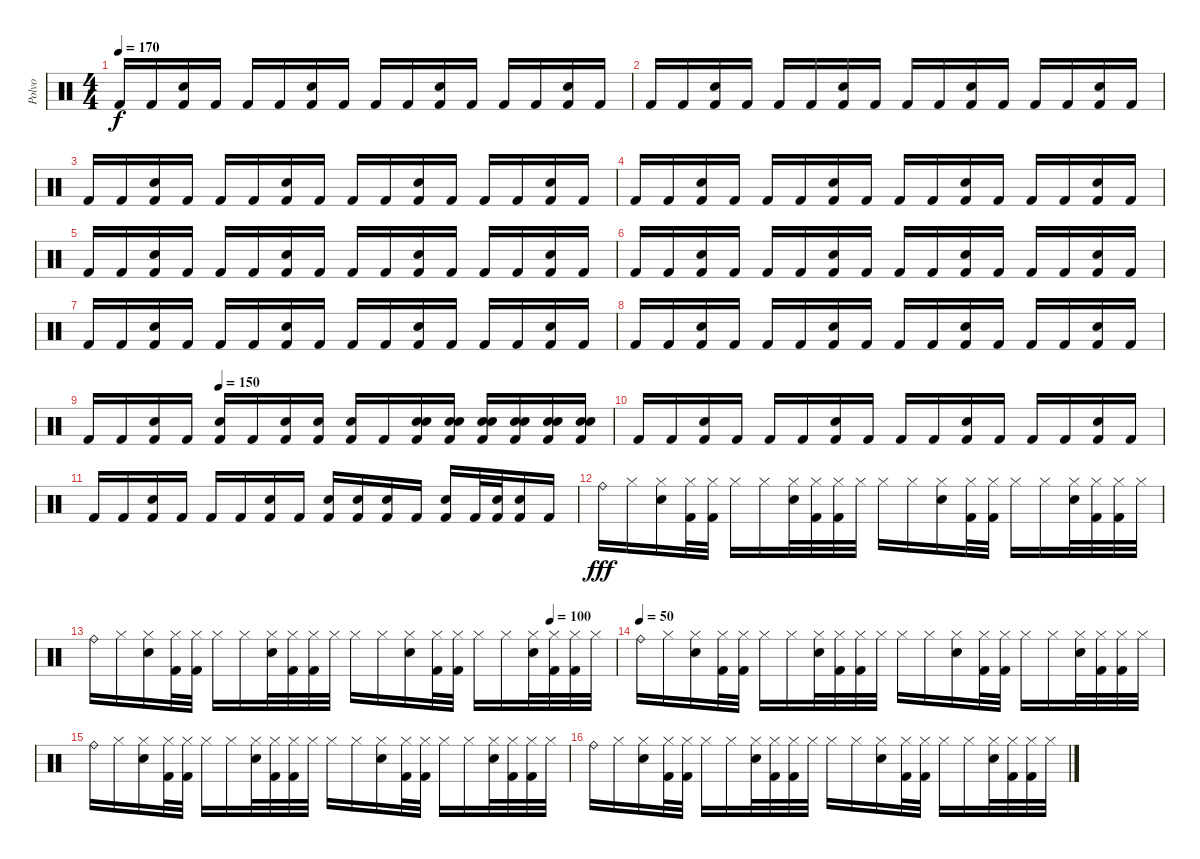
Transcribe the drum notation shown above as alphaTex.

\track ("Polvo" "Polvo") {instrument percussion}
\staff {score}
\articulation defaults
\ts (4 4)
\tempo 170
\clef neutral
\ks c "Kick (hit) 2".16{dy f} "Kick (hit) 2".16
("Electric Snare (hit)" "Kick (hit) 2").16 "Kick (hit) 2".16 "Kick (hit) 2".16 "Kick (hit) 2".16 ("Electric Snare (hit)" "Kick (hit) 2").16 "Kick (hit) 2".16 "Kick (hit) 2".16 "Kick (hit) 2".16 ("Electric Snare (hit)" "Kick (hit) 2").16 "Kick (hit) 2".16 "Kick (hit) 2".16 "Kick (hit) 2".16 ("Electric Snare (hit)" "Kick (hit) 2").16 "Kick (hit) 2".16 |
"Kick (hit) 2".16 "Kick (hit) 2".16 ("Electric Snare (hit)" "Kick (hit) 2").16 "Kick (hit) 2".16 "Kick (hit) 2".16 "Kick (hit) 2".16 ("Electric Snare (hit)" "Kick (hit) 2").16 "Kick (hit) 2".16 "Kick (hit) 2".16 "Kick (hit) 2".16 ("Electric Snare (hit)" "Kick (hit) 2").16 "Kick (hit) 2".16 "Kick (hit) 2".16 "Kick (hit) 2".16 ("Electric Snare (hit)" "Kick (hit) 2").16 "Kick (hit) 2".16 |
"Kick (hit) 2".16 "Kick (hit) 2".16 ("Electric Snare (hit)" "Kick (hit) 2").16 "Kick (hit) 2".16 "Kick (hit) 2".16 "Kick (hit) 2".16 ("Electric Snare (hit)" "Kick (hit) 2").16 "Kick (hit) 2".16 "Kick (hit) 2".16 "Kick (hit) 2".16 ("Electric Snare (hit)" "Kick (hit) 2").16 "Kick (hit) 2".16 "Kick (hit) 2".16 "Kick (hit) 2".16 ("Electric Snare (hit)" "Kick (hit) 2").16 "Kick (hit) 2".16 |
"Kick (hit) 2".16 "Kick (hit) 2".16 ("Electric Snare (hit)" "Kick (hit) 2").16 "Kick (hit) 2".16 "Kick (hit) 2".16 "Kick (hit) 2".16 ("Electric Snare (hit)" "Kick (hit) 2").16 "Kick (hit) 2".16 "Kick (hit) 2".16 "Kick (hit) 2".16 ("Electric Snare (hit)" "Kick (hit) 2").16 "Kick (hit) 2".16 "Kick (hit) 2".16 "Kick (hit) 2".16 ("Electric Snare (hit)" "Kick (hit) 2").16 "Kick (hit) 2".16 |
"Kick (hit) 2".16 "Kick (hit) 2".16 ("Electric Snare (hit)" "Kick (hit) 2").16 "Kick (hit) 2".16 "Kick (hit) 2".16 "Kick (hit) 2".16 ("Electric Snare (hit)" "Kick (hit) 2").16 "Kick (hit) 2".16 "Kick (hit) 2".16 "Kick (hit) 2".16 ("Electric Snare (hit)" "Kick (hit) 2").16 "Kick (hit) 2".16 "Kick (hit) 2".16 "Kick (hit) 2".16 ("Electric Snare (hit)" "Kick (hit) 2").16 "Kick (hit) 2".16 |
"Kick (hit) 2".16 "Kick (hit) 2".16 ("Electric Snare (hit)" "Kick (hit) 2").16 "Kick (hit) 2".16 "Kick (hit) 2".16 "Kick (hit) 2".16 ("Electric Snare (hit)" "Kick (hit) 2").16 "Kick (hit) 2".16 "Kick (hit) 2".16 "Kick (hit) 2".16 ("Electric Snare (hit)" "Kick (hit) 2").16 "Kick (hit) 2".16 "Kick (hit) 2".16 "Kick (hit) 2".16 ("Electric Snare (hit)" "Kick (hit) 2").16 "Kick (hit) 2".16 |
"Kick (hit) 2".16 "Kick (hit) 2".16 ("Electric Snare (hit)" "Kick (hit) 2").16 "Kick (hit) 2".16 "Kick (hit) 2".16 "Kick (hit) 2".16 ("Electric Snare (hit)" "Kick (hit) 2").16 "Kick (hit) 2".16 "Kick (hit) 2".16 "Kick (hit) 2".16 ("Electric Snare (hit)" "Kick (hit) 2").16 "Kick (hit) 2".16 "Kick (hit) 2".16 "Kick (hit) 2".16 ("Electric Snare (hit)" "Kick (hit) 2").16 "Kick (hit) 2".16 |
"Kick (hit) 2".16 "Kick (hit) 2".16 ("Electric Snare (hit)" "Kick (hit) 2").16 "Kick (hit) 2".16 "Kick (hit) 2".16 "Kick (hit) 2".16 ("Electric Snare (hit)" "Kick (hit) 2").16 "Kick (hit) 2".16 "Kick (hit) 2".16 "Kick (hit) 2".16 ("Electric Snare (hit)" "Kick (hit) 2").16 "Kick (hit) 2".16 "Kick (hit) 2".16 "Kick (hit) 2".16 ("Electric Snare (hit)" "Kick (hit) 2").16 "Kick (hit) 2".16 |
\tempo (100 0.25)
\tempo (150 0.25)
"Kick (hit) 2".16 "Kick (hit) 2".16 ("Electric Snare (hit)" "Kick (hit) 2").16 "Kick (hit) 2".16 ("Electric Snare (hit)" "Kick (hit) 2").16 "Kick (hit) 2".16 ("Electric Snare (hit)" "Kick (hit) 2").16 ("Electric Snare (hit)" "Kick (hit) 2").16 ("Electric Snare (hit)" "Kick (hit) 2").16 "Kick (hit) 2".16 ("Snare (hit) 2" "Electric Snare (hit)" "Kick (hit) 2").16 ("Snare (hit) 2" "Electric Snare (hit)" "Kick (hit) 2").16 ("Snare (hit) 2" "Electric Snare (hit)" "Kick (hit) 2").16 ("Snare (hit) 2" "Electric Snare (hit)" "Kick (hit) 2").16 ("Snare (hit) 2" "Electric Snare (hit)" "Kick (hit) 2").16 ("Snare (hit) 2" "Electric Snare (hit)" "Kick (hit) 2").16 |
"Kick (hit) 2".16 "Kick (hit) 2".16 ("Electric Snare (hit)" "Kick (hit) 2").16 "Kick (hit) 2".16 "Kick (hit) 2".16 "Kick (hit) 2".16 ("Electric Snare (hit)" "Kick (hit) 2").16 "Kick (hit) 2".16 "Kick (hit) 2".16 "Kick (hit) 2".16 ("Electric Snare (hit)" "Kick (hit) 2").16 "Kick (hit) 2".16 "Kick (hit) 2".16 "Kick (hit) 2".16 ("Electric Snare (hit)" "Kick (hit) 2").16 "Kick (hit) 2".16 |
"Kick (hit) 2".16 "Kick (hit) 2".16 ("Electric Snare (hit)" "Kick (hit) 2").16 "Kick (hit) 2".16 "Kick (hit) 2".16 "Kick (hit) 2".16 ("Electric Snare (hit)" "Kick (hit) 2").16 "Kick (hit) 2".16 ("Electric Snare (hit)" "Kick (hit) 2").16 ("Electric Snare (hit)" "Kick (hit) 2").16 ("Electric Snare (hit)" "Kick (hit) 2").16 "Kick (hit) 2".16 ("Electric Snare (hit)" "Kick (hit) 2").16 "Kick (hit) 2".32 ("Electric Snare (hit)" "Kick (hit) 2").32 ("Electric Snare (hit)" "Kick (hit) 2").16 "Kick (hit) 2".16 |
"Ride (bell)".16{dy fff} "Hi-Hat (closed)".16 ("Electric Snare (hit)" "Hi-Hat (closed)").16 ("Hi-Hat (closed)" "Kick (hit) 2").32 ("Hi-Hat (closed)" "Kick (hit) 2").32 "Hi-Hat (closed)".16 "Hi-Hat (closed)".16 ("Electric Snare (hit)" "Hi-Hat (closed)").32 ("Hi-Hat (closed)" "Kick (hit) 2").32 ("Hi-Hat (closed)" "Kick (hit) 2").32 "Hi-Hat (closed)".32 "Hi-Hat (closed)".16 "Hi-Hat (closed)".16 ("Electric Snare (hit)" "Hi-Hat (closed)").16 ("Hi-Hat (closed)" "Kick (hit) 2").32 ("Hi-Hat (closed)" "Kick (hit) 2").32 "Hi-Hat (closed)".16 "Hi-Hat (closed)".16 ("Electric Snare (hit)" "Hi-Hat (closed)").32 ("Hi-Hat (closed)" "Kick (hit) 2").32 ("Hi-Hat (closed)" "Kick (hit) 2").32 "Hi-Hat (closed)".32 |
\tempo (100 0.875)
"Ride (bell)".16 "Hi-Hat (closed)".16 ("Electric Snare (hit)" "Hi-Hat (closed)").16 ("Hi-Hat (closed)" "Kick (hit) 2").32 ("Hi-Hat (closed)" "Kick (hit) 2").32 "Hi-Hat (closed)".16 "Hi-Hat (closed)".16 ("Electric Snare (hit)" "Hi-Hat (closed)").32 ("Hi-Hat (closed)" "Kick (hit) 2").32 ("Hi-Hat (closed)" "Kick (hit) 2").32 "Hi-Hat (closed)".32 "Hi-Hat (closed)".16 "Hi-Hat (closed)".16 ("Electric Snare (hit)" "Hi-Hat (closed)").16 ("Hi-Hat (closed)" "Kick (hit) 2").32 ("Hi-Hat (closed)" "Kick (hit) 2").32 "Hi-Hat (closed)".16 "Hi-Hat (closed)".16 ("Electric Snare (hit)" "Hi-Hat (closed)").32 ("Hi-Hat (closed)" "Kick (hit) 2").32 ("Hi-Hat (closed)" "Kick (hit) 2").32 "Hi-Hat (closed)".32 |
\tempo (50)
"Ride (bell)".16 "Hi-Hat (closed)".16 ("Electric Snare (hit)" "Hi-Hat (closed)").16 ("Hi-Hat (closed)" "Kick (hit) 2").32 ("Hi-Hat (closed)" "Kick (hit) 2").32 "Hi-Hat (closed)".16 "Hi-Hat (closed)".16 ("Electric Snare (hit)" "Hi-Hat (closed)").32 ("Hi-Hat (closed)" "Kick (hit) 2").32 ("Hi-Hat (closed)" "Kick (hit) 2").32 "Hi-Hat (closed)".32 "Hi-Hat (closed)".16 "Hi-Hat (closed)".16 ("Electric Snare (hit)" "Hi-Hat (closed)").16 ("Hi-Hat (closed)" "Kick (hit) 2").32 ("Hi-Hat (closed)" "Kick (hit) 2").32 "Hi-Hat (closed)".16 "Hi-Hat (closed)".16 ("Electric Snare (hit)" "Hi-Hat (closed)").32 ("Hi-Hat (closed)" "Kick (hit) 2").32 ("Hi-Hat (closed)" "Kick (hit) 2").32 "Hi-Hat (closed)".32 |
"Ride (bell)".16 "Hi-Hat (closed)".16 ("Electric Snare (hit)" "Hi-Hat (closed)").16 ("Hi-Hat (closed)" "Kick (hit) 2").32 ("Hi-Hat (closed)" "Kick (hit) 2").32 "Hi-Hat (closed)".16 "Hi-Hat (closed)".16 ("Electric Snare (hit)" "Hi-Hat (closed)").32 ("Hi-Hat (closed)" "Kick (hit) 2").32 ("Hi-Hat (closed)" "Kick (hit) 2").32 "Hi-Hat (closed)".32 "Hi-Hat (closed)".16 "Hi-Hat (closed)".16 ("Electric Snare (hit)" "Hi-Hat (closed)").16 ("Hi-Hat (closed)" "Kick (hit) 2").32 ("Hi-Hat (closed)" "Kick (hit) 2").32 "Hi-Hat (closed)".16 "Hi-Hat (closed)".16 ("Electric Snare (hit)" "Hi-Hat (closed)").32 ("Hi-Hat (closed)" "Kick (hit) 2").32 ("Hi-Hat (closed)" "Kick (hit) 2").32 "Hi-Hat (closed)".32 |
"Ride (bell)".16 "Hi-Hat (closed)".16 ("Electric Snare (hit)" "Hi-Hat (closed)").16 ("Hi-Hat (closed)" "Kick (hit) 2").32 ("Hi-Hat (closed)" "Kick (hit) 2").32 "Hi-Hat (closed)".16 "Hi-Hat (closed)".16 ("Electric Snare (hit)" "Hi-Hat (closed)").32 ("Hi-Hat (closed)" "Kick (hit) 2").32 ("Hi-Hat (closed)" "Kick (hit) 2").32 "Hi-Hat (closed)".32 "Hi-Hat (closed)".16 "Hi-Hat (closed)".16 ("Electric Snare (hit)" "Hi-Hat (closed)").16 ("Hi-Hat (closed)" "Kick (hit) 2").32 ("Hi-Hat (closed)" "Kick (hit) 2").32 "Hi-Hat (closed)".16 "Hi-Hat (closed)".16 ("Electric Snare (hit)" "Hi-Hat (closed)").32 ("Hi-Hat (closed)" "Kick (hit) 2").32 ("Hi-Hat (closed)" "Kick (hit) 2").32 "Hi-Hat (closed)".32
